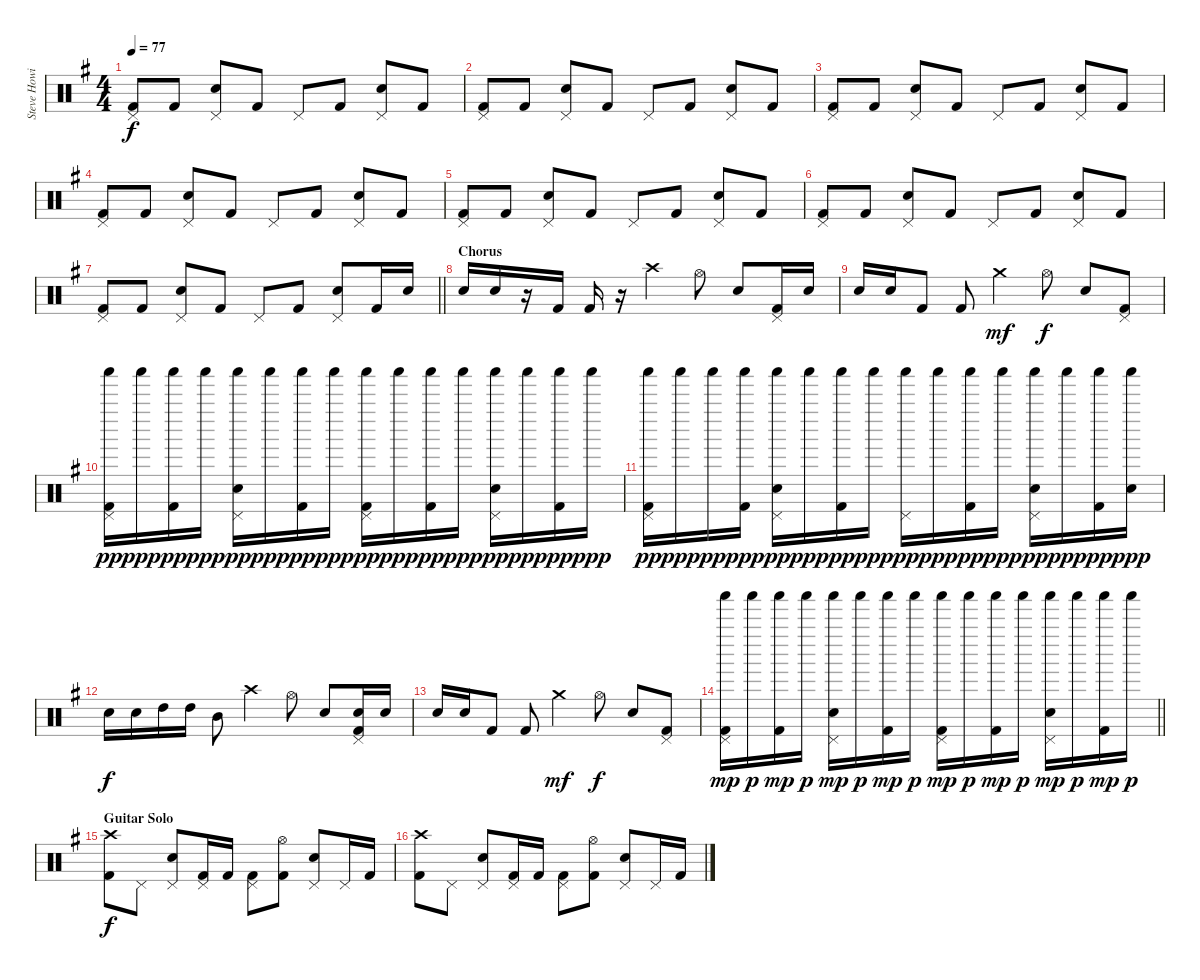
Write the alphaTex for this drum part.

\track ("Steve Howie" "Steve Howi") {instrument percussion}
\staff {score}
\articulation defaults
\ts (4 4)
\tempo 77
\clef neutral
\ks g
("Pedal Hi-Hat (hit)" "Kick (hit) 2").8{dy f} "Kick (hit) 2".8 ("Pedal Hi-Hat (hit)" "Electric Snare (hit)").8 "Kick (hit) 2".8 "Pedal Hi-Hat (hit)".8 "Kick (hit) 2".8 ("Pedal Hi-Hat (hit)" "Electric Snare (hit)").8 "Kick (hit) 2".8 |
("Pedal Hi-Hat (hit)" "Kick (hit) 2").8 "Kick (hit) 2".8 ("Pedal Hi-Hat (hit)" "Electric Snare (hit)").8 "Kick (hit) 2".8 "Pedal Hi-Hat (hit)".8 "Kick (hit) 2".8 ("Pedal Hi-Hat (hit)" "Electric Snare (hit)").8 "Kick (hit) 2".8 |
("Pedal Hi-Hat (hit)" "Kick (hit) 2").8 "Kick (hit) 2".8 ("Pedal Hi-Hat (hit)" "Electric Snare (hit)").8 "Kick (hit) 2".8 "Pedal Hi-Hat (hit)".8 "Kick (hit) 2".8 ("Pedal Hi-Hat (hit)" "Electric Snare (hit)").8 "Kick (hit) 2".8 |
("Pedal Hi-Hat (hit)" "Kick (hit) 2").8 "Kick (hit) 2".8 ("Pedal Hi-Hat (hit)" "Electric Snare (hit)").8 "Kick (hit) 2".8 "Pedal Hi-Hat (hit)".8 "Kick (hit) 2".8 ("Pedal Hi-Hat (hit)" "Electric Snare (hit)").8 "Kick (hit) 2".8 |
("Pedal Hi-Hat (hit)" "Kick (hit) 2").8 "Kick (hit) 2".8 ("Pedal Hi-Hat (hit)" "Electric Snare (hit)").8 "Kick (hit) 2".8 "Pedal Hi-Hat (hit)".8 "Kick (hit) 2".8 ("Pedal Hi-Hat (hit)" "Electric Snare (hit)").8 "Kick (hit) 2".8 |
("Pedal Hi-Hat (hit)" "Kick (hit) 2").8 "Kick (hit) 2".8 ("Pedal Hi-Hat (hit)" "Electric Snare (hit)").8 "Kick (hit) 2".8 "Pedal Hi-Hat (hit)".8 "Kick (hit) 2".8 ("Pedal Hi-Hat (hit)" "Electric Snare (hit)").8 "Kick (hit) 2".8 |
\barLineRight lightlight
("Pedal Hi-Hat (hit)" "Kick (hit) 2").8 "Kick (hit) 2".8 ("Pedal Hi-Hat (hit)" "Electric Snare (hit)").8 "Kick (hit) 2".8 "Pedal Hi-Hat (hit)".8 "Kick (hit) 2".8 ("Pedal Hi-Hat (hit)" "Electric Snare (hit)").8 "Kick (hit) 2".16 "Electric Snare (hit)".16 |
\section ("" "Chorus")
"Electric Snare (hit)".16 "Electric Snare (hit)".16 r.16 "Kick (hit) 2".16 "Kick (hit) 2".16 r.16 "Crash high (hit)".4 "Hi-Hat (open)".8 "Electric Snare (hit)".8 ("Pedal Hi-Hat (hit)" "Kick (hit) 2").16 "Electric Snare (hit)".16 |
"Electric Snare (hit)".16 "Electric Snare (hit)".16 "Kick (hit) 2".8 "Kick (hit) 2".8 "Crash medium (hit)".4{dy mf} "Hi-Hat (open)".8{dy f} "Electric Snare (hit)".8 ("Pedal Hi-Hat (hit)" "Kick (hit) 2").8 |
("Pedal Hi-Hat (hit)" "Shaker (hit)" "Kick (hit) 2").16{dy pp} "Shaker (hit)".16{dy ppp} ("Shaker (hit)" "Kick (hit) 2").16{dy pp} "Shaker (hit)".16{dy ppp} ("Pedal Hi-Hat (hit)" "Electric Snare (hit)" "Shaker (hit)").16{dy pp} "Shaker (hit)".16{dy ppp} ("Shaker (hit)" "Kick (hit) 2").16{dy pp} "Shaker (hit)".16{dy ppp} ("Pedal Hi-Hat (hit)" "Shaker (hit)" "Kick (hit) 2").16{dy pp} "Shaker (hit)".16{dy ppp} ("Shaker (hit)" "Kick (hit) 2").16{dy pp} "Shaker (hit)".16{dy ppp} ("Pedal Hi-Hat (hit)" "Electric Snare (hit)" "Shaker (hit)").16{dy pp} "Shaker (hit)".16{dy ppp} ("Shaker (hit)" "Kick (hit) 2").16{dy pp} "Shaker (hit)".16{dy ppp} |
("Pedal Hi-Hat (hit)" "Shaker (hit)" "Kick (hit) 2").16{dy pp} "Shaker (hit)".16{dy ppp} "Shaker (hit)".16{dy pp} ("Shaker (hit)" "Kick (hit) 2").16{dy ppp} ("Pedal Hi-Hat (hit)" "Electric Snare (hit)" "Shaker (hit)").16{dy pp} "Shaker (hit)".16{dy ppp} ("Shaker (hit)" "Kick (hit) 2").16{dy pp} "Shaker (hit)".16{dy ppp} ("Pedal Hi-Hat (hit)" "Shaker (hit)").16{dy pp} "Shaker (hit)".16{dy ppp} ("Shaker (hit)" "Kick (hit) 2").16{dy pp} "Shaker (hit)".16{dy ppp} ("Pedal Hi-Hat (hit)" "Electric Snare (hit)" "Shaker (hit)").16{dy pp} "Shaker (hit)".16{dy ppp} ("Shaker (hit)" "Kick (hit) 2").16{dy pp} ("Electric Snare (hit)" "Shaker (hit)").16{dy ppp} |
"Electric Snare (hit)".16{dy f} "Electric Snare (hit)".16 "High Tom (hit)".16 "High Tom (hit)".16 "Mid Tom (hit)".8 "Crash high (hit)".4 "Hi-Hat (open)".8 "Electric Snare (hit)".8 ("Pedal Hi-Hat (hit)" "Electric Snare (hit)" "Kick (hit) 2").16 "Electric Snare (hit)".16 |
"Electric Snare (hit)".16 "Electric Snare (hit)".16 "Kick (hit) 2".8 "Kick (hit) 2".8 "Crash medium (hit)".4{dy mf} "Hi-Hat (open)".8{dy f} "Electric Snare (hit)".8 ("Pedal Hi-Hat (hit)" "Kick (hit) 2").8 |
\barLineRight lightlight
("Pedal Hi-Hat (hit)" "Shaker (hit)" "Kick (hit) 2").16{dy mp} "Shaker (hit)".16{dy p} ("Shaker (hit)" "Kick (hit) 2").16{dy mp} "Shaker (hit)".16{dy p} ("Pedal Hi-Hat (hit)" "Electric Snare (hit)" "Shaker (hit)").16{dy mp} "Shaker (hit)".16{dy p} ("Shaker (hit)" "Kick (hit) 2").16{dy mp} "Shaker (hit)".16{dy p} ("Pedal Hi-Hat (hit)" "Shaker (hit)" "Kick (hit) 2").16{dy mp} "Shaker (hit)".16{dy p} ("Shaker (hit)" "Kick (hit) 2").16{dy mp} "Shaker (hit)".16{dy p} ("Pedal Hi-Hat (hit)" "Electric Snare (hit)" "Shaker (hit)").16{dy mp} "Shaker (hit)".16{dy p} ("Shaker (hit)" "Kick (hit) 2").16{dy mp} "Shaker (hit)".16{dy p} |
\section ("" "Guitar Solo")
("Crash high (hit)" "Kick (hit) 2").8{dy f} "Pedal Hi-Hat (hit)".8 ("Pedal Hi-Hat (hit)" "Electric Snare (hit)").8 ("Pedal Hi-Hat (hit)" "Kick (hit) 2").16 "Kick (hit) 2".16 ("Pedal Hi-Hat (hit)" "Kick (hit) 2").8 ("Hi-Hat (open)" "Kick (hit) 2").8 ("Pedal Hi-Hat (hit)" "Electric Snare (hit)").8 "Pedal Hi-Hat (hit)".16 "Kick (hit) 2".16 |
("Crash high (hit)" "Kick (hit) 2").8 "Pedal Hi-Hat (hit)".8 ("Pedal Hi-Hat (hit)" "Electric Snare (hit)").8 ("Pedal Hi-Hat (hit)" "Kick (hit) 2").16 "Kick (hit) 2".16 ("Pedal Hi-Hat (hit)" "Kick (hit) 2").8 ("Hi-Hat (open)" "Kick (hit) 2").8 ("Pedal Hi-Hat (hit)" "Electric Snare (hit)").8 "Pedal Hi-Hat (hit)".16 "Kick (hit) 2".16
